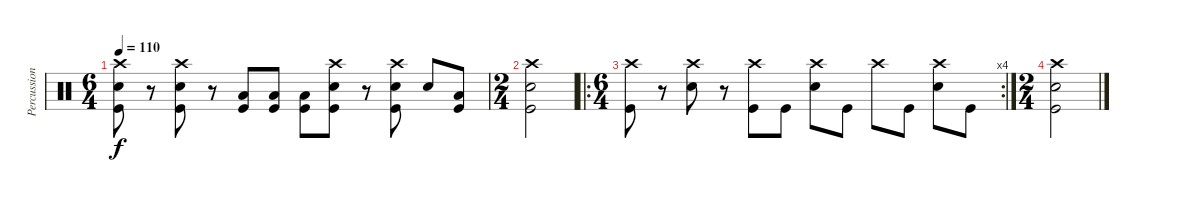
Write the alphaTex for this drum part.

\track ("Percussion" "Percussion") {instrument percussion}
\staff {score}
\articulation defaults
\ts (6 4)
\tempo 110
\clef neutral
\ks c
("Crash high (hit)" "Snare (hit) 2" "Kick (hit)").8{dy f} r.8 ("Crash high (hit)" "Snare (hit) 2" "Kick (hit)").8 r.8 ("Low Floor Tom (hit)" "Kick (hit)").8 ("Low Floor Tom (hit)" "Kick (hit)").8 ("Low Floor Tom (hit)" "Kick (hit)").8 ("Crash high (hit)" "Snare (hit) 2" "Kick (hit)").8 r.8 ("Crash high (hit)" "Snare (hit) 2" "Kick (hit)").8 "Snare (hit) 2".8 ("Low Floor Tom (hit)" "Kick (hit)").8 |
\ts (2 4)
("Crash high (hit)" "Snare (hit) 2" "Kick (hit)").2 |
\ro
\rc 4
\ts (6 4)
("Crash high (hit)" "Kick (hit)").8 r.8 ("Crash high (hit)" "Snare (hit) 2").8 r.8 ("Crash high (hit)" "Kick (hit)").8 "Kick (hit)".8 ("Crash high (hit)" "Snare (hit) 2").8 "Kick (hit)".8 "Crash high (hit)".8 "Kick (hit)".8 ("Crash high (hit)" "Snare (hit) 2").8 "Kick (hit)".8 |
\ts (2 4)
("Crash high (hit)" "Snare (hit) 2" "Kick (hit)").2
